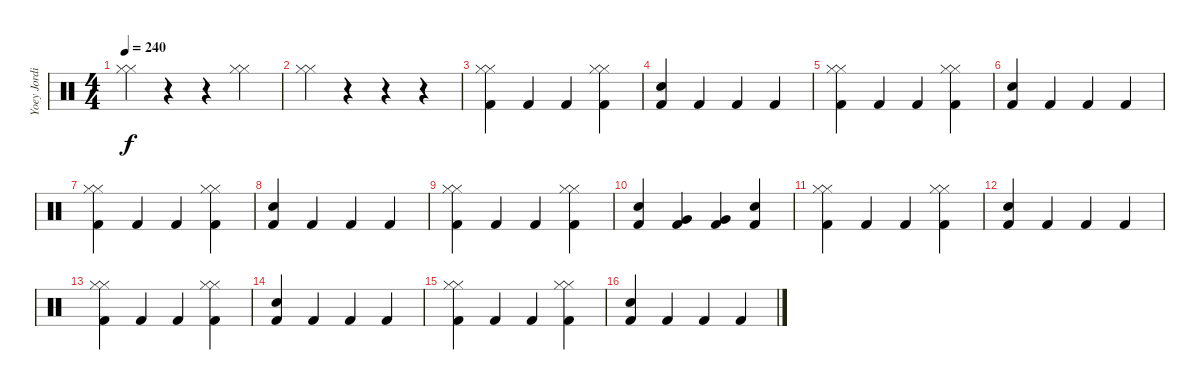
\track ("Yoey Jordison" "Yoey Jordi") {instrument percussion}
\staff {score}
\articulation defaults
\ts (4 4)
\tempo 240
\clef neutral
\ks c
("Hi-Hat (closed)" "Hi-Hat (closed)").4{dy f} r.4 r.4 ("Hi-Hat (closed)" "Hi-Hat (closed)").4 |
("Hi-Hat (closed)" "Hi-Hat (closed)").4 r.4 r.4 r.4 |
("Kick (hit) 2" "Hi-Hat (closed)" "Hi-Hat (closed)").4 "Kick (hit) 2".4 "Kick (hit) 2".4 ("Kick (hit) 2" "Hi-Hat (closed)" "Hi-Hat (closed)").4 |
("Kick (hit) 2" "Snare (hit) 2").4 "Kick (hit) 2".4 "Kick (hit) 2".4 "Kick (hit) 2".4 |
("Kick (hit) 2" "Hi-Hat (closed)" "Hi-Hat (closed)").4 "Kick (hit) 2".4 "Kick (hit) 2".4 ("Kick (hit) 2" "Hi-Hat (closed)" "Hi-Hat (closed)").4 |
("Kick (hit) 2" "Snare (hit) 2").4 "Kick (hit) 2".4 "Kick (hit) 2".4 "Kick (hit) 2".4 |
("Kick (hit) 2" "Hi-Hat (closed)" "Hi-Hat (closed)").4 "Kick (hit) 2".4 "Kick (hit) 2".4 ("Kick (hit) 2" "Hi-Hat (closed)" "Hi-Hat (closed)").4 |
("Kick (hit) 2" "Snare (hit) 2").4 "Kick (hit) 2".4 "Kick (hit) 2".4 "Kick (hit) 2".4 |
("Kick (hit) 2" "Hi-Hat (closed)" "Hi-Hat (closed)").4 "Kick (hit) 2".4 "Kick (hit) 2".4 ("Kick (hit) 2" "Hi-Hat (closed)" "Hi-Hat (closed)").4 |
("Kick (hit) 2" "Snare (hit) 2").4 ("Kick (hit) 2" "Very Low Tom (hit)").4 ("Kick (hit) 2" "Very Low Tom (hit)").4 ("Kick (hit) 2" "Snare (hit) 2").4 |
("Kick (hit) 2" "Hi-Hat (closed)" "Hi-Hat (closed)").4 "Kick (hit) 2".4 "Kick (hit) 2".4 ("Kick (hit) 2" "Hi-Hat (closed)" "Hi-Hat (closed)").4 |
("Kick (hit) 2" "Snare (hit) 2").4 "Kick (hit) 2".4 "Kick (hit) 2".4 "Kick (hit) 2".4 |
("Kick (hit) 2" "Hi-Hat (closed)" "Hi-Hat (closed)").4 "Kick (hit) 2".4 "Kick (hit) 2".4 ("Kick (hit) 2" "Hi-Hat (closed)" "Hi-Hat (closed)").4 |
("Kick (hit) 2" "Snare (hit) 2").4 "Kick (hit) 2".4 "Kick (hit) 2".4 "Kick (hit) 2".4 |
("Kick (hit) 2" "Hi-Hat (closed)" "Hi-Hat (closed)").4 "Kick (hit) 2".4 "Kick (hit) 2".4 ("Kick (hit) 2" "Hi-Hat (closed)" "Hi-Hat (closed)").4 |
("Kick (hit) 2" "Snare (hit) 2").4 "Kick (hit) 2".4 "Kick (hit) 2".4 "Kick (hit) 2".4
